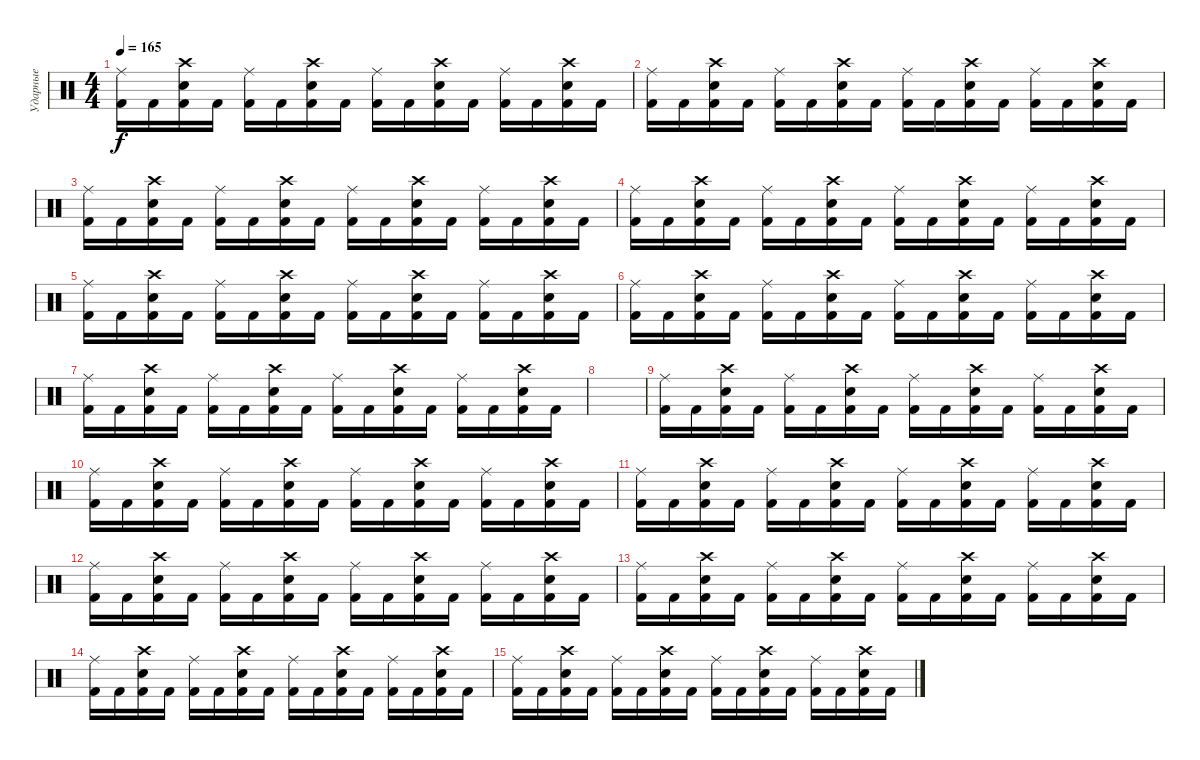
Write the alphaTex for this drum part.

\track ("Ударные" "Ударные") {instrument percussion}
\staff {score}
\articulation defaults
\ts (4 4)
\tempo 165
\clef neutral
\ks c
("Kick (hit) 2" "Ride (middle)").16{dy f} "Kick (hit) 2".16 ("Kick (hit) 2" "Electric Snare (hit)" "Crash high (hit)").16 "Kick (hit) 2".16 ("Kick (hit) 2" "Ride (middle)").16 "Kick (hit) 2".16 ("Kick (hit) 2" "Electric Snare (hit)" "Crash high (hit)").16 "Kick (hit) 2".16 ("Kick (hit) 2" "Ride (middle)").16 "Kick (hit) 2".16 ("Kick (hit) 2" "Electric Snare (hit)" "Crash high (hit)").16 "Kick (hit) 2".16 ("Kick (hit) 2" "Ride (middle)").16 "Kick (hit) 2".16 ("Kick (hit) 2" "Electric Snare (hit)" "Crash high (hit)").16 "Kick (hit) 2".16 |
("Kick (hit) 2" "Ride (middle)").16 "Kick (hit) 2".16 ("Kick (hit) 2" "Electric Snare (hit)" "Crash high (hit)").16 "Kick (hit) 2".16 ("Kick (hit) 2" "Ride (middle)").16 "Kick (hit) 2".16 ("Kick (hit) 2" "Electric Snare (hit)" "Crash high (hit)").16 "Kick (hit) 2".16 ("Kick (hit) 2" "Ride (middle)").16 "Kick (hit) 2".16 ("Kick (hit) 2" "Electric Snare (hit)" "Crash high (hit)").16 "Kick (hit) 2".16 ("Kick (hit) 2" "Ride (middle)").16 "Kick (hit) 2".16 ("Kick (hit) 2" "Electric Snare (hit)" "Crash high (hit)").16 "Kick (hit) 2".16 |
("Kick (hit) 2" "Ride (middle)").16 "Kick (hit) 2".16 ("Kick (hit) 2" "Electric Snare (hit)" "Crash high (hit)").16 "Kick (hit) 2".16 ("Kick (hit) 2" "Ride (middle)").16 "Kick (hit) 2".16 ("Kick (hit) 2" "Electric Snare (hit)" "Crash high (hit)").16 "Kick (hit) 2".16 ("Kick (hit) 2" "Ride (middle)").16 "Kick (hit) 2".16 ("Kick (hit) 2" "Electric Snare (hit)" "Crash high (hit)").16 "Kick (hit) 2".16 ("Kick (hit) 2" "Ride (middle)").16 "Kick (hit) 2".16 ("Kick (hit) 2" "Electric Snare (hit)" "Crash high (hit)").16 "Kick (hit) 2".16 |
("Kick (hit) 2" "Ride (middle)").16 "Kick (hit) 2".16 ("Kick (hit) 2" "Electric Snare (hit)" "Crash high (hit)").16 "Kick (hit) 2".16 ("Kick (hit) 2" "Ride (middle)").16 "Kick (hit) 2".16 ("Kick (hit) 2" "Electric Snare (hit)" "Crash high (hit)").16 "Kick (hit) 2".16 ("Kick (hit) 2" "Ride (middle)").16 "Kick (hit) 2".16 ("Kick (hit) 2" "Electric Snare (hit)" "Crash high (hit)").16 "Kick (hit) 2".16 ("Kick (hit) 2" "Ride (middle)").16 "Kick (hit) 2".16 ("Kick (hit) 2" "Electric Snare (hit)" "Crash high (hit)").16 "Kick (hit) 2".16 |
("Kick (hit) 2" "Ride (middle)").16 "Kick (hit) 2".16 ("Kick (hit) 2" "Electric Snare (hit)" "Crash high (hit)").16 "Kick (hit) 2".16 ("Kick (hit) 2" "Ride (middle)").16 "Kick (hit) 2".16 ("Kick (hit) 2" "Electric Snare (hit)" "Crash high (hit)").16 "Kick (hit) 2".16 ("Kick (hit) 2" "Ride (middle)").16 "Kick (hit) 2".16 ("Kick (hit) 2" "Electric Snare (hit)" "Crash high (hit)").16 "Kick (hit) 2".16 ("Kick (hit) 2" "Ride (middle)").16 "Kick (hit) 2".16 ("Kick (hit) 2" "Electric Snare (hit)" "Crash high (hit)").16 "Kick (hit) 2".16 |
("Kick (hit) 2" "Ride (middle)").16 "Kick (hit) 2".16 ("Kick (hit) 2" "Electric Snare (hit)" "Crash high (hit)").16 "Kick (hit) 2".16 ("Kick (hit) 2" "Ride (middle)").16 "Kick (hit) 2".16 ("Kick (hit) 2" "Electric Snare (hit)" "Crash high (hit)").16 "Kick (hit) 2".16 ("Kick (hit) 2" "Ride (middle)").16 "Kick (hit) 2".16 ("Kick (hit) 2" "Electric Snare (hit)" "Crash high (hit)").16 "Kick (hit) 2".16 ("Kick (hit) 2" "Ride (middle)").16 "Kick (hit) 2".16 ("Kick (hit) 2" "Electric Snare (hit)" "Crash high (hit)").16 "Kick (hit) 2".16 |
("Kick (hit) 2" "Ride (middle)").16 "Kick (hit) 2".16 ("Kick (hit) 2" "Electric Snare (hit)" "Crash high (hit)").16 "Kick (hit) 2".16 ("Kick (hit) 2" "Ride (middle)").16 "Kick (hit) 2".16 ("Kick (hit) 2" "Electric Snare (hit)" "Crash high (hit)").16 "Kick (hit) 2".16 ("Kick (hit) 2" "Ride (middle)").16 "Kick (hit) 2".16 ("Kick (hit) 2" "Electric Snare (hit)" "Crash high (hit)").16 "Kick (hit) 2".16 ("Kick (hit) 2" "Ride (middle)").16 "Kick (hit) 2".16 ("Kick (hit) 2" "Electric Snare (hit)" "Crash high (hit)").16 "Kick (hit) 2".16 |
|
("Kick (hit) 2" "Ride (middle)").16 "Kick (hit) 2".16 ("Kick (hit) 2" "Electric Snare (hit)" "Crash high (hit)").16 "Kick (hit) 2".16 ("Kick (hit) 2" "Ride (middle)").16 "Kick (hit) 2".16 ("Kick (hit) 2" "Electric Snare (hit)" "Crash high (hit)").16 "Kick (hit) 2".16 ("Kick (hit) 2" "Ride (middle)").16 "Kick (hit) 2".16 ("Kick (hit) 2" "Electric Snare (hit)" "Crash high (hit)").16 "Kick (hit) 2".16 ("Kick (hit) 2" "Ride (middle)").16 "Kick (hit) 2".16 ("Kick (hit) 2" "Electric Snare (hit)" "Crash high (hit)").16 "Kick (hit) 2".16 |
("Kick (hit) 2" "Ride (middle)").16 "Kick (hit) 2".16 ("Kick (hit) 2" "Electric Snare (hit)" "Crash high (hit)").16 "Kick (hit) 2".16 ("Kick (hit) 2" "Ride (middle)").16 "Kick (hit) 2".16 ("Kick (hit) 2" "Electric Snare (hit)" "Crash high (hit)").16 "Kick (hit) 2".16 ("Kick (hit) 2" "Ride (middle)").16 "Kick (hit) 2".16 ("Kick (hit) 2" "Electric Snare (hit)" "Crash high (hit)").16 "Kick (hit) 2".16 ("Kick (hit) 2" "Ride (middle)").16 "Kick (hit) 2".16 ("Kick (hit) 2" "Electric Snare (hit)" "Crash high (hit)").16 "Kick (hit) 2".16 |
("Kick (hit) 2" "Ride (middle)").16 "Kick (hit) 2".16 ("Kick (hit) 2" "Electric Snare (hit)" "Crash high (hit)").16 "Kick (hit) 2".16 ("Kick (hit) 2" "Ride (middle)").16 "Kick (hit) 2".16 ("Kick (hit) 2" "Electric Snare (hit)" "Crash high (hit)").16 "Kick (hit) 2".16 ("Kick (hit) 2" "Ride (middle)").16 "Kick (hit) 2".16 ("Kick (hit) 2" "Electric Snare (hit)" "Crash high (hit)").16 "Kick (hit) 2".16 ("Kick (hit) 2" "Ride (middle)").16 "Kick (hit) 2".16 ("Kick (hit) 2" "Electric Snare (hit)" "Crash high (hit)").16 "Kick (hit) 2".16 |
("Kick (hit) 2" "Ride (middle)").16 "Kick (hit) 2".16 ("Kick (hit) 2" "Electric Snare (hit)" "Crash high (hit)").16 "Kick (hit) 2".16 ("Kick (hit) 2" "Ride (middle)").16 "Kick (hit) 2".16 ("Kick (hit) 2" "Electric Snare (hit)" "Crash high (hit)").16 "Kick (hit) 2".16 ("Kick (hit) 2" "Ride (middle)").16 "Kick (hit) 2".16 ("Kick (hit) 2" "Electric Snare (hit)" "Crash high (hit)").16 "Kick (hit) 2".16 ("Kick (hit) 2" "Ride (middle)").16 "Kick (hit) 2".16 ("Kick (hit) 2" "Electric Snare (hit)" "Crash high (hit)").16 "Kick (hit) 2".16 |
("Kick (hit) 2" "Ride (middle)").16 "Kick (hit) 2".16 ("Kick (hit) 2" "Electric Snare (hit)" "Crash high (hit)").16 "Kick (hit) 2".16 ("Kick (hit) 2" "Ride (middle)").16 "Kick (hit) 2".16 ("Kick (hit) 2" "Electric Snare (hit)" "Crash high (hit)").16 "Kick (hit) 2".16 ("Kick (hit) 2" "Ride (middle)").16 "Kick (hit) 2".16 ("Kick (hit) 2" "Electric Snare (hit)" "Crash high (hit)").16 "Kick (hit) 2".16 ("Kick (hit) 2" "Ride (middle)").16 "Kick (hit) 2".16 ("Kick (hit) 2" "Electric Snare (hit)" "Crash high (hit)").16 "Kick (hit) 2".16 |
("Kick (hit) 2" "Ride (middle)").16 "Kick (hit) 2".16 ("Kick (hit) 2" "Electric Snare (hit)" "Crash high (hit)").16 "Kick (hit) 2".16 ("Kick (hit) 2" "Ride (middle)").16 "Kick (hit) 2".16 ("Kick (hit) 2" "Electric Snare (hit)" "Crash high (hit)").16 "Kick (hit) 2".16 ("Kick (hit) 2" "Ride (middle)").16 "Kick (hit) 2".16 ("Kick (hit) 2" "Electric Snare (hit)" "Crash high (hit)").16 "Kick (hit) 2".16 ("Kick (hit) 2" "Ride (middle)").16 "Kick (hit) 2".16 ("Kick (hit) 2" "Electric Snare (hit)" "Crash high (hit)").16 "Kick (hit) 2".16 |
("Kick (hit) 2" "Ride (middle)").16 "Kick (hit) 2".16 ("Kick (hit) 2" "Electric Snare (hit)" "Crash high (hit)").16 "Kick (hit) 2".16 ("Kick (hit) 2" "Ride (middle)").16 "Kick (hit) 2".16 ("Kick (hit) 2" "Electric Snare (hit)" "Crash high (hit)").16 "Kick (hit) 2".16 ("Kick (hit) 2" "Ride (middle)").16 "Kick (hit) 2".16 ("Kick (hit) 2" "Electric Snare (hit)" "Crash high (hit)").16 "Kick (hit) 2".16 ("Kick (hit) 2" "Ride (middle)").16 "Kick (hit) 2".16 ("Kick (hit) 2" "Electric Snare (hit)" "Crash high (hit)").16 "Kick (hit) 2".16
